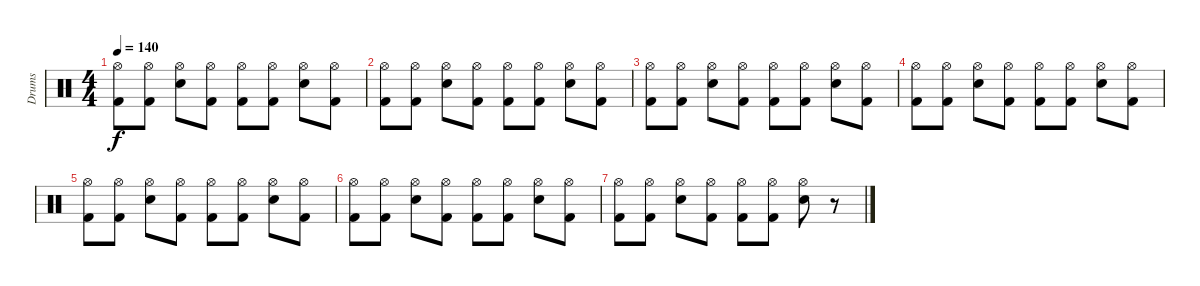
\track ("Drums" "Drums") {instrument percussion}
\staff {score}
\articulation defaults
\ts (4 4)
\tempo 140
\clef neutral
\ks c
("Kick (hit) 2" "Hi-Hat (open)").8{dy f} ("Hi-Hat (open)" "Kick (hit) 2").8 ("Hi-Hat (open)" "Snare (hit) 2").8 ("Kick (hit) 2" "Hi-Hat (open)").8 ("Kick (hit) 2" "Hi-Hat (open)").8 ("Kick (hit) 2" "Hi-Hat (open)").8 ("Hi-Hat (open)" "Snare (hit) 2").8 ("Hi-Hat (open)" "Kick (hit) 2").8 |
("Hi-Hat (open)" "Kick (hit) 2").8 ("Kick (hit) 2" "Hi-Hat (open)").8 ("Snare (hit) 2" "Hi-Hat (open)").8 ("Kick (hit) 2" "Hi-Hat (open)").8 ("Kick (hit) 2" "Hi-Hat (open)").8 ("Kick (hit) 2" "Hi-Hat (open)").8 ("Snare (hit) 2" "Hi-Hat (open)").8 ("Hi-Hat (open)" "Kick (hit) 2").8 |
("Kick (hit) 2" "Hi-Hat (open)").8 ("Hi-Hat (open)" "Kick (hit) 2").8 ("Snare (hit) 2" "Hi-Hat (open)").8 ("Hi-Hat (open)" "Kick (hit) 2").8 ("Kick (hit) 2" "Hi-Hat (open)").8 ("Kick (hit) 2" "Hi-Hat (open)").8 ("Snare (hit) 2" "Hi-Hat (open)").8 ("Kick (hit) 2" "Hi-Hat (open)").8 |
("Hi-Hat (open)" "Kick (hit) 2").8 ("Kick (hit) 2" "Hi-Hat (open)").8 ("Snare (hit) 2" "Hi-Hat (open)").8 ("Kick (hit) 2" "Hi-Hat (open)").8 ("Kick (hit) 2" "Hi-Hat (open)").8 ("Kick (hit) 2" "Hi-Hat (open)").8 ("Snare (hit) 2" "Hi-Hat (open)").8 ("Hi-Hat (open)" "Kick (hit) 2").8 |
("Kick (hit) 2" "Hi-Hat (open)").8 ("Hi-Hat (open)" "Kick (hit) 2").8 ("Snare (hit) 2" "Hi-Hat (open)").8 ("Hi-Hat (open)" "Kick (hit) 2").8 ("Kick (hit) 2" "Hi-Hat (open)").8 ("Kick (hit) 2" "Hi-Hat (open)").8 ("Snare (hit) 2" "Hi-Hat (open)").8 ("Kick (hit) 2" "Hi-Hat (open)").8 |
("Hi-Hat (open)" "Kick (hit) 2").8 ("Kick (hit) 2" "Hi-Hat (open)").8 ("Snare (hit) 2" "Hi-Hat (open)").8 ("Kick (hit) 2" "Hi-Hat (open)").8 ("Kick (hit) 2" "Hi-Hat (open)").8 ("Kick (hit) 2" "Hi-Hat (open)").8 ("Snare (hit) 2" "Hi-Hat (open)").8 ("Hi-Hat (open)" "Kick (hit) 2").8 |
("Hi-Hat (open)" "Kick (hit) 2").8 ("Kick (hit) 2" "Hi-Hat (open)").8 ("Hi-Hat (open)" "Snare (hit) 2").8 ("Hi-Hat (open)" "Kick (hit) 2").8 ("Kick (hit) 2" "Hi-Hat (open)").8 ("Kick (hit) 2" "Hi-Hat (open)").8 ("Hi-Hat (open)" "Snare (hit) 2").8 r.8
